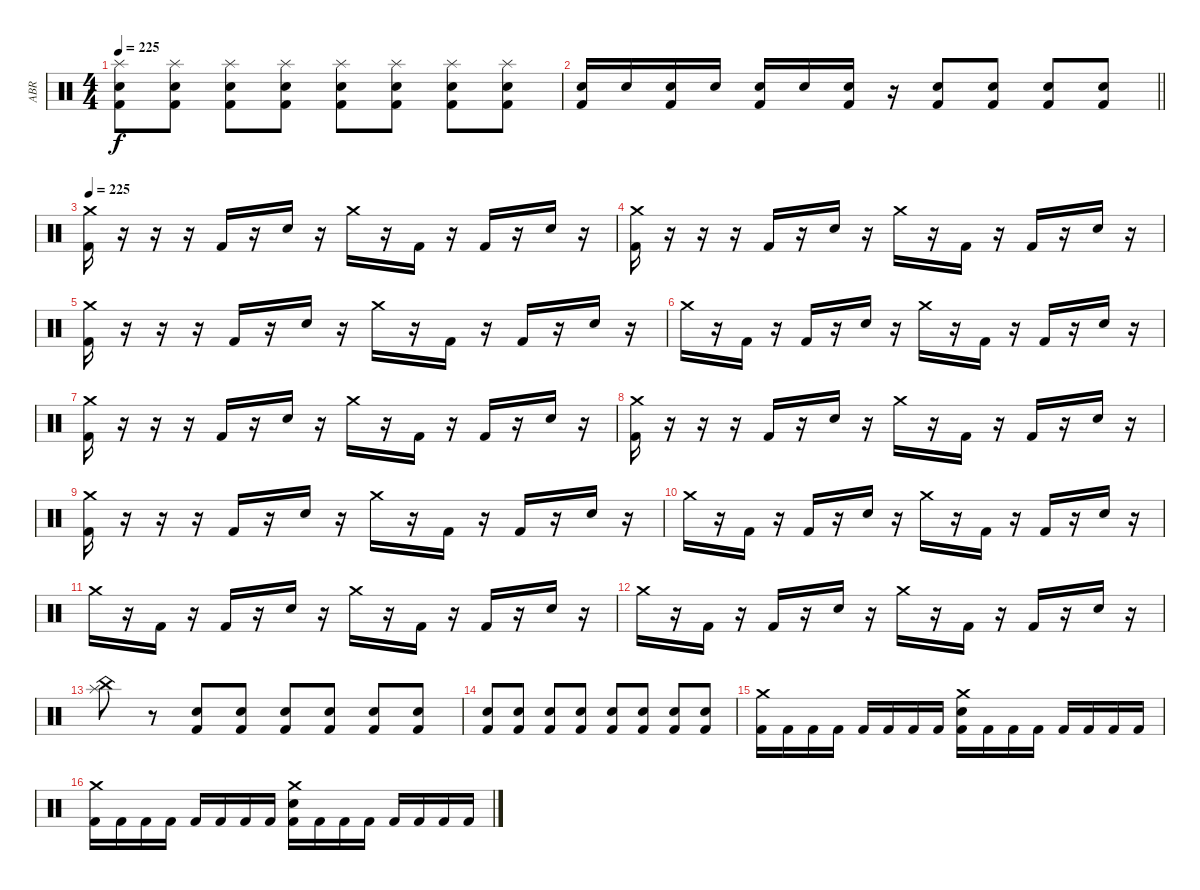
\track ("ABR" "ABR") {instrument percussion}
\staff {score}
\articulation defaults
\ts (4 4)
\tempo 225
\clef neutral
\ks c
("Splash (hit)" "Snare (hit) 2" "Kick (hit) 2").8{dy f} ("Splash (hit)" "Snare (hit) 2" "Kick (hit) 2").8 ("Splash (hit)" "Snare (hit) 2" "Kick (hit) 2").8 ("Splash (hit)" "Snare (hit) 2" "Kick (hit) 2").8 ("Splash (hit)" "Snare (hit) 2" "Kick (hit) 2").8 ("Splash (hit)" "Snare (hit) 2" "Kick (hit) 2").8 ("Splash (hit)" "Snare (hit) 2" "Kick (hit) 2").8 ("Splash (hit)" "Snare (hit) 2" "Kick (hit) 2").8 |
\barLineRight lightlight
("Snare (hit) 2" "Kick (hit) 2").16 "Snare (hit) 2".16 ("Snare (hit) 2" "Kick (hit) 2").16 "Snare (hit) 2".16 ("Snare (hit) 2" "Kick (hit) 2").16 "Snare (hit) 2".16 ("Snare (hit) 2" "Kick (hit) 2").16 r.16 ("Snare (hit) 2" "Kick (hit) 2").8 ("Snare (hit) 2" "Kick (hit) 2").8 ("Snare (hit) 2" "Kick (hit) 2").8 ("Snare (hit) 2" "Kick (hit) 2").8 |
\tempo 210
\tempo 225
("Crash medium (hit)" "Kick (hit) 2").16 r.16 r.16 r.16 "Kick (hit) 2".16 r.16 "Snare (hit) 2".16 r.16 "Crash medium (hit)".16 r.16 "Kick (hit) 2".16 r.16 "Kick (hit) 2".16 r.16 "Snare (hit) 2".16 r.16 |
("Crash medium (hit)" "Kick (hit) 2").16 r.16 r.16 r.16 "Kick (hit) 2".16 r.16 "Snare (hit) 2".16 r.16 "Crash medium (hit)".16 r.16 "Kick (hit) 2".16 r.16 "Kick (hit) 2".16 r.16 "Snare (hit) 2".16 r.16 |
("Crash medium (hit)" "Kick (hit) 2").16 r.16 r.16 r.16 "Kick (hit) 2".16 r.16 "Snare (hit) 2".16 r.16 "Crash medium (hit)".16 r.16 "Kick (hit) 2".16 r.16 "Kick (hit) 2".16 r.16 "Snare (hit) 2".16 r.16 |
"Crash medium (hit)".16 r.16 "Kick (hit) 2".16 r.16 "Kick (hit) 2".16 r.16 "Snare (hit) 2".16 r.16 "Crash medium (hit)".16 r.16 "Kick (hit) 2".16 r.16 "Kick (hit) 2".16 r.16 "Snare (hit) 2".16 r.16 |
("Crash medium (hit)" "Kick (hit) 2").16 r.16 r.16 r.16 "Kick (hit) 2".16 r.16 "Snare (hit) 2".16 r.16 "Crash medium (hit)".16 r.16 "Kick (hit) 2".16 r.16 "Kick (hit) 2".16 r.16 "Snare (hit) 2".16 r.16 |
("Crash medium (hit)" "Kick (hit) 2").16 r.16 r.16 r.16 "Kick (hit) 2".16 r.16 "Snare (hit) 2".16 r.16 "Crash medium (hit)".16 r.16 "Kick (hit) 2".16 r.16 "Kick (hit) 2".16 r.16 "Snare (hit) 2".16 r.16 |
("Crash medium (hit)" "Kick (hit) 2").16 r.16 r.16 r.16 "Kick (hit) 2".16 r.16 "Snare (hit) 2".16 r.16 "Crash medium (hit)".16 r.16 "Kick (hit) 2".16 r.16 "Kick (hit) 2".16 r.16 "Snare (hit) 2".16 r.16 |
"Crash medium (hit)".16 r.16 "Kick (hit) 2".16 r.16 "Kick (hit) 2".16 r.16 "Snare (hit) 2".16 r.16 "Crash medium (hit)".16 r.16 "Kick (hit) 2".16 r.16 "Kick (hit) 2".16 r.16 "Snare (hit) 2".16 r.16 |
"Crash medium (hit)".16 r.16 "Kick (hit) 2".16 r.16 "Kick (hit) 2".16 r.16 "Snare (hit) 2".16 r.16 "Crash medium (hit)".16 r.16 "Kick (hit) 2".16 r.16 "Kick (hit) 2".16 r.16 "Snare (hit) 2".16 r.16 |
"Crash medium (hit)".16 r.16 "Kick (hit) 2".16 r.16 "Kick (hit) 2".16 r.16 "Snare (hit) 2".16 r.16 "Crash medium (hit)".16 r.16 "Kick (hit) 2".16 r.16 "Kick (hit) 2".16 r.16 "Snare (hit) 2".16 r.16 |
("China (hit)" "Splash (hit)").8 r.8 ("Snare (hit) 2" "Kick (hit) 2").8 ("Snare (hit) 2" "Kick (hit) 2").8 ("Snare (hit) 2" "Kick (hit) 2").8 ("Snare (hit) 2" "Kick (hit) 2").8 ("Snare (hit) 2" "Kick (hit) 2").8 ("Snare (hit) 2" "Kick (hit) 2").8 |
("Snare (hit) 2" "Kick (hit) 2").8 ("Snare (hit) 2" "Kick (hit) 2").8 ("Snare (hit) 2" "Kick (hit) 2").8 ("Snare (hit) 2" "Kick (hit) 2").8 ("Snare (hit) 2" "Kick (hit) 2").8 ("Snare (hit) 2" "Kick (hit) 2").8 ("Snare (hit) 2" "Kick (hit) 2").8 ("Snare (hit) 2" "Kick (hit) 2").8 |
("Crash medium (hit)" "Kick (hit) 2").16 "Kick (hit) 2".16 "Kick (hit) 2".16 "Kick (hit) 2".16 "Kick (hit) 2".16 "Kick (hit) 2".16 "Kick (hit) 2".16 "Kick (hit) 2".16 ("Crash medium (hit)" "Snare (hit) 2" "Kick (hit) 2").16 "Kick (hit) 2".16 "Kick (hit) 2".16 "Kick (hit) 2".16 "Kick (hit) 2".16 "Kick (hit) 2".16 "Kick (hit) 2".16 "Kick (hit) 2".16 |
("Crash medium (hit)" "Kick (hit) 2").16 "Kick (hit) 2".16 "Kick (hit) 2".16 "Kick (hit) 2".16 "Kick (hit) 2".16 "Kick (hit) 2".16 "Kick (hit) 2".16 "Kick (hit) 2".16 ("Crash medium (hit)" "Snare (hit) 2" "Kick (hit) 2").16 "Kick (hit) 2".16 "Kick (hit) 2".16 "Kick (hit) 2".16 "Kick (hit) 2".16 "Kick (hit) 2".16 "Kick (hit) 2".16 "Kick (hit) 2".16
